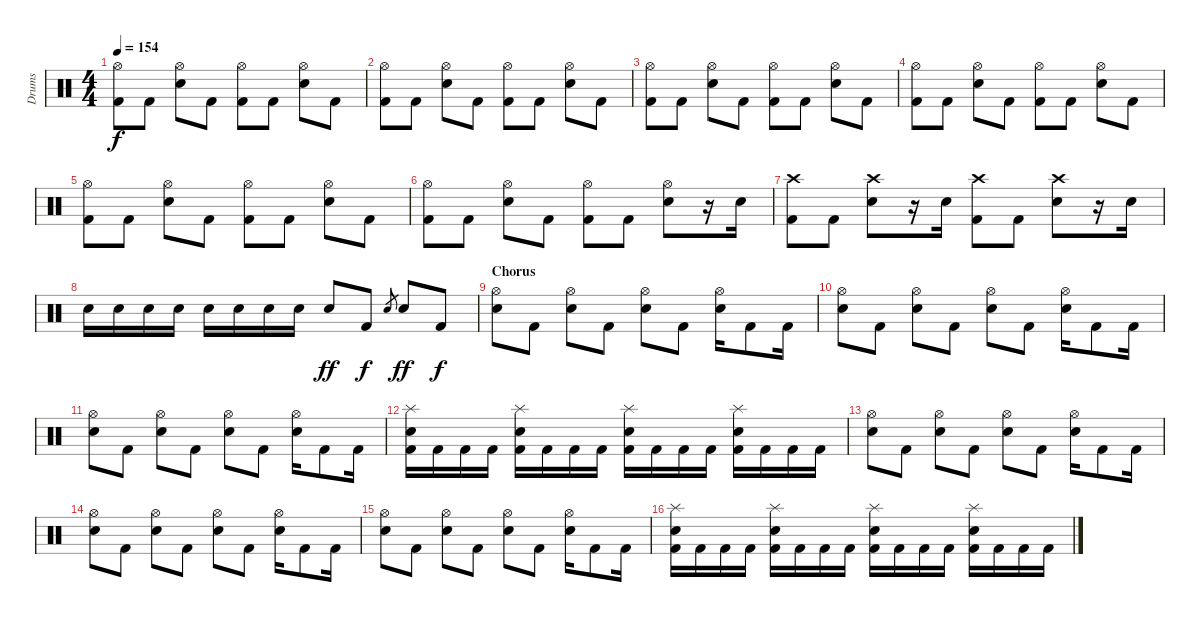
\track ("Drums" "Drums") {instrument percussion}
\staff {score}
\articulation defaults
\ts (4 4)
\tempo 154
\clef neutral
\ks c
("Hi-Hat (open)" "Kick (hit) 2").8{dy f} "Kick (hit) 2".8 ("Hi-Hat (open)" "Electric Snare (hit)").8 "Kick (hit) 2".8 ("Hi-Hat (open)" "Kick (hit) 2").8 "Kick (hit) 2".8 ("Hi-Hat (open)" "Electric Snare (hit)").8 "Kick (hit) 2".8 |
("Hi-Hat (open)" "Kick (hit) 2").8 "Kick (hit) 2".8 ("Hi-Hat (open)" "Electric Snare (hit)").8 "Kick (hit) 2".8 ("Hi-Hat (open)" "Kick (hit) 2").8 "Kick (hit) 2".8 ("Hi-Hat (open)" "Electric Snare (hit)").8 "Kick (hit) 2".8 |
("Hi-Hat (open)" "Kick (hit) 2").8 "Kick (hit) 2".8 ("Hi-Hat (open)" "Electric Snare (hit)").8 "Kick (hit) 2".8 ("Hi-Hat (open)" "Kick (hit) 2").8 "Kick (hit) 2".8 ("Hi-Hat (open)" "Electric Snare (hit)").8 "Kick (hit) 2".8 |
("Hi-Hat (open)" "Kick (hit) 2").8 "Kick (hit) 2".8 ("Hi-Hat (open)" "Electric Snare (hit)").8 "Kick (hit) 2".8 ("Hi-Hat (open)" "Kick (hit) 2").8 "Kick (hit) 2".8 ("Hi-Hat (open)" "Electric Snare (hit)").8 "Kick (hit) 2".8 |
("Hi-Hat (open)" "Kick (hit) 2").8 "Kick (hit) 2".8 ("Hi-Hat (open)" "Electric Snare (hit)").8 "Kick (hit) 2".8 ("Hi-Hat (open)" "Kick (hit) 2").8 "Kick (hit) 2".8 ("Hi-Hat (open)" "Electric Snare (hit)").8 "Kick (hit) 2".8 |
("Hi-Hat (open)" "Kick (hit) 2").8 "Kick (hit) 2".8 ("Hi-Hat (open)" "Electric Snare (hit)").8 "Kick (hit) 2".8 ("Hi-Hat (open)" "Kick (hit) 2").8 "Kick (hit) 2".8 ("Hi-Hat (open)" "Electric Snare (hit)").8 r.16 "Electric Snare (hit)".16 |
("Crash high (hit)" "Kick (hit) 2").8 "Kick (hit) 2".8 ("Crash high (hit)" "Electric Snare (hit)").8 r.16 "Electric Snare (hit)".16 ("Crash high (hit)" "Kick (hit) 2").8 "Kick (hit) 2".8 ("Crash high (hit)" "Electric Snare (hit)").8 r.16 "Electric Snare (hit)".16 |
"Electric Snare (hit)".16 "Electric Snare (hit)".16 "Electric Snare (hit)".16 "Electric Snare (hit)".16 "Electric Snare (hit)".16 "Electric Snare (hit)".16 "Electric Snare (hit)".16 "Electric Snare (hit)".16 "Electric Snare (hit)".8{dy ff} "Kick (hit) 2".8{dy f} "Electric Snare (hit)".8{gr} "Electric Snare (hit)".8{dy ff} "Kick (hit) 2".8{dy f} |
\section ("" "Chorus")
("Hi-Hat (open)" "Electric Snare (hit)").8 "Kick (hit) 2".8 ("Hi-Hat (open)" "Electric Snare (hit)").8 "Kick (hit) 2".8 ("Hi-Hat (open)" "Electric Snare (hit)").8 "Kick (hit) 2".8 ("Hi-Hat (open)" "Electric Snare (hit)").16 "Kick (hit) 2".8 "Kick (hit) 2".16 |
("Hi-Hat (open)" "Electric Snare (hit)").8 "Kick (hit) 2".8 ("Hi-Hat (open)" "Electric Snare (hit)").8 "Kick (hit) 2".8 ("Hi-Hat (open)" "Electric Snare (hit)").8 "Kick (hit) 2".8 ("Hi-Hat (open)" "Electric Snare (hit)").16 "Kick (hit) 2".8 "Kick (hit) 2".16 |
("Hi-Hat (open)" "Electric Snare (hit)").8 "Kick (hit) 2".8 ("Hi-Hat (open)" "Electric Snare (hit)").8 "Kick (hit) 2".8 ("Hi-Hat (open)" "Electric Snare (hit)").8 "Kick (hit) 2".8 ("Hi-Hat (open)" "Electric Snare (hit)").16 "Kick (hit) 2".8 "Kick (hit) 2".16 |
("Splash (hit)" "Electric Snare (hit)" "Kick (hit) 2").16 "Kick (hit) 2".16 "Kick (hit) 2".16 "Kick (hit) 2".16 ("Splash (hit)" "Electric Snare (hit)" "Kick (hit) 2").16 "Kick (hit) 2".16 "Kick (hit) 2".16 "Kick (hit) 2".16 ("Splash (hit)" "Electric Snare (hit)" "Kick (hit) 2").16 "Kick (hit) 2".16 "Kick (hit) 2".16 "Kick (hit) 2".16 ("Splash (hit)" "Electric Snare (hit)" "Kick (hit) 2").16 "Kick (hit) 2".16 "Kick (hit) 2".16 "Kick (hit) 2".16 |
("Hi-Hat (open)" "Electric Snare (hit)").8 "Kick (hit) 2".8 ("Hi-Hat (open)" "Electric Snare (hit)").8 "Kick (hit) 2".8 ("Hi-Hat (open)" "Electric Snare (hit)").8 "Kick (hit) 2".8 ("Hi-Hat (open)" "Electric Snare (hit)").16 "Kick (hit) 2".8 "Kick (hit) 2".16 |
("Hi-Hat (open)" "Electric Snare (hit)").8 "Kick (hit) 2".8 ("Hi-Hat (open)" "Electric Snare (hit)").8 "Kick (hit) 2".8 ("Hi-Hat (open)" "Electric Snare (hit)").8 "Kick (hit) 2".8 ("Hi-Hat (open)" "Electric Snare (hit)").16 "Kick (hit) 2".8 "Kick (hit) 2".16 |
("Hi-Hat (open)" "Electric Snare (hit)").8 "Kick (hit) 2".8 ("Hi-Hat (open)" "Electric Snare (hit)").8 "Kick (hit) 2".8 ("Hi-Hat (open)" "Electric Snare (hit)").8 "Kick (hit) 2".8 ("Hi-Hat (open)" "Electric Snare (hit)").16 "Kick (hit) 2".8 "Kick (hit) 2".16 |
("Splash (hit)" "Electric Snare (hit)" "Kick (hit) 2").16 "Kick (hit) 2".16 "Kick (hit) 2".16 "Kick (hit) 2".16 ("Splash (hit)" "Electric Snare (hit)" "Kick (hit) 2").16 "Kick (hit) 2".16 "Kick (hit) 2".16 "Kick (hit) 2".16 ("Splash (hit)" "Electric Snare (hit)" "Kick (hit) 2").16 "Kick (hit) 2".16 "Kick (hit) 2".16 "Kick (hit) 2".16 ("Splash (hit)" "Electric Snare (hit)" "Kick (hit) 2").16 "Kick (hit) 2".16 "Kick (hit) 2".16 "Kick (hit) 2".16
